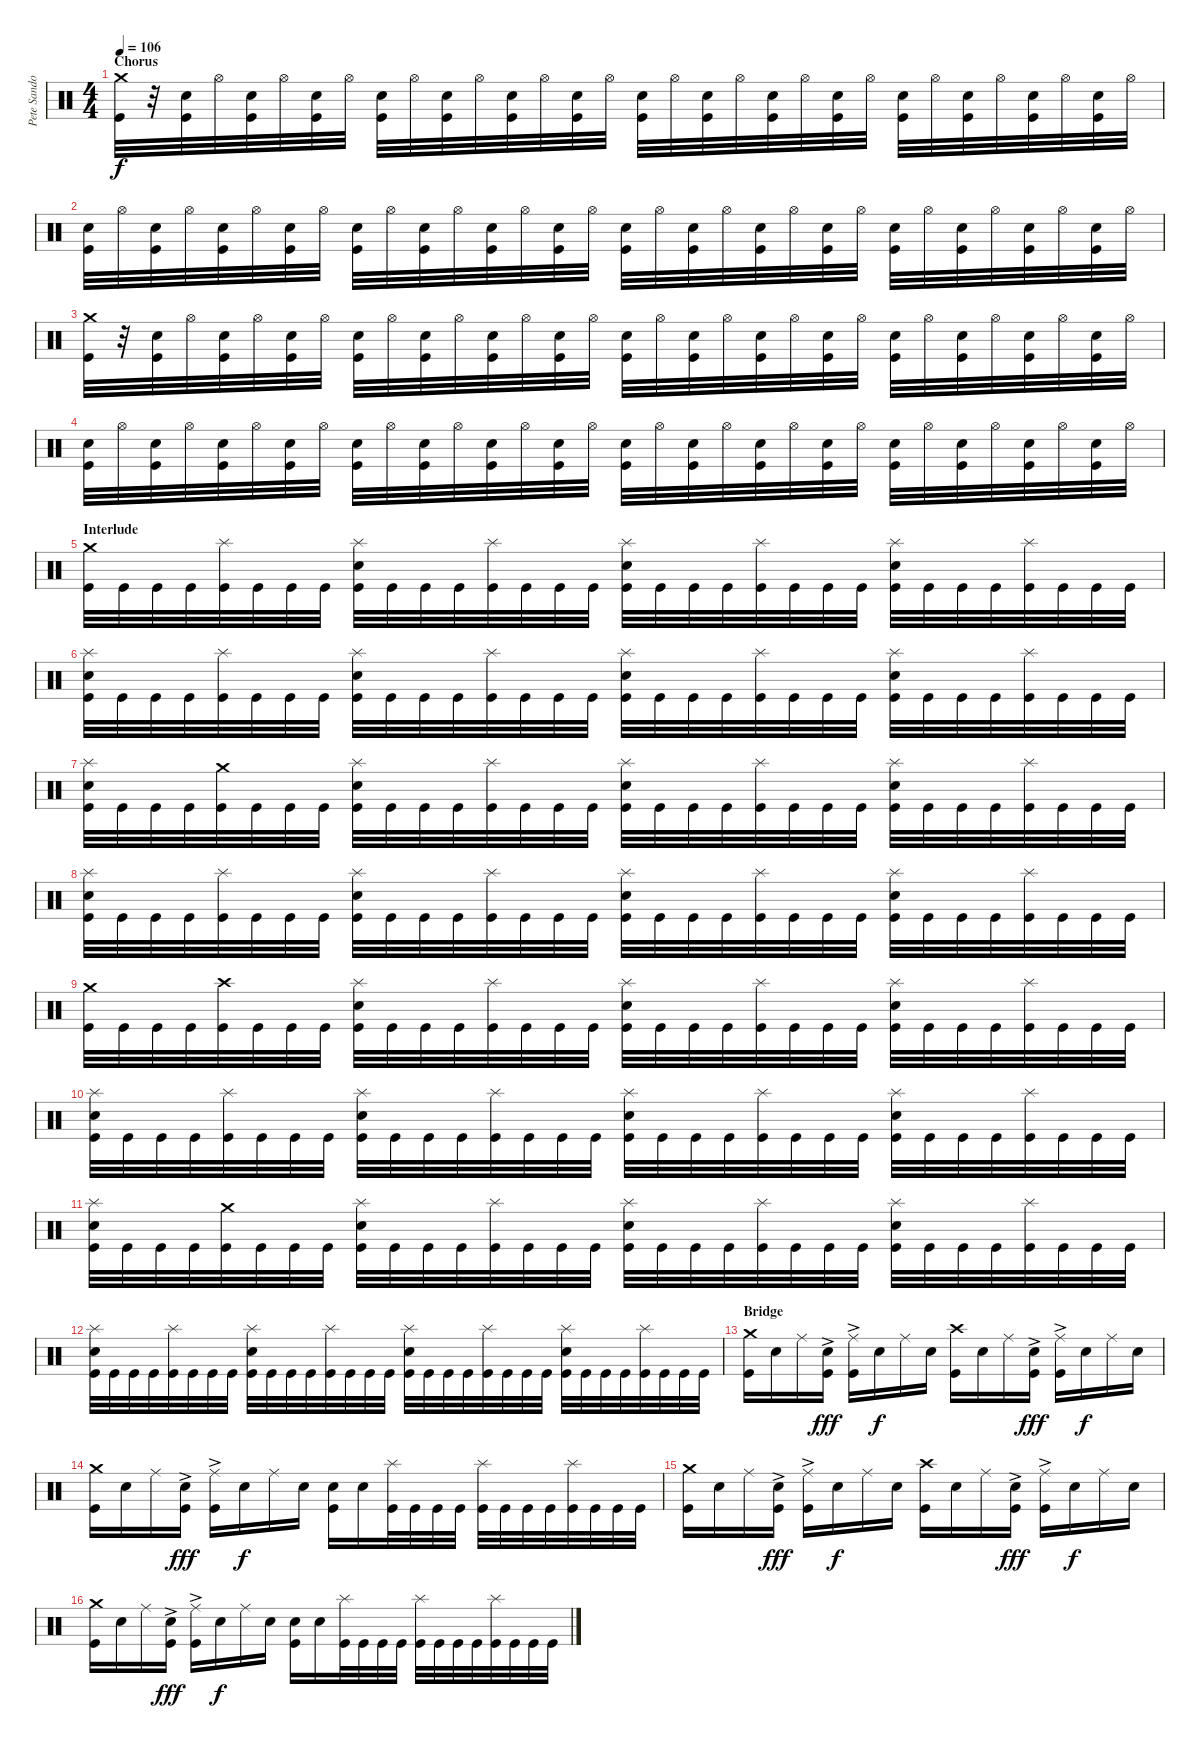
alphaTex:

\track ("Pete Sandoval" "Pete Sando") {instrument percussion}
\staff {score}
\articulation defaults
\ts (4 4)
\section ("" "Chorus")
\tempo 106
\clef neutral
\ks c
("Crash medium (hit)" "Kick (hit)").32{dy f} r.32 ("Electric Snare (hit)" "Kick (hit)").32 "Hi-Hat (open)".32 ("Electric Snare (hit)" "Kick (hit)").32 "Hi-Hat (open)".32 ("Electric Snare (hit)" "Kick (hit)").32 "Hi-Hat (open)".32 ("Electric Snare (hit)" "Kick (hit)").32 "Hi-Hat (open)".32 ("Electric Snare (hit)" "Kick (hit)").32 "Hi-Hat (open)".32 ("Electric Snare (hit)" "Kick (hit)").32 "Hi-Hat (open)".32 ("Electric Snare (hit)" "Kick (hit)").32 "Hi-Hat (open)".32 ("Electric Snare (hit)" "Kick (hit)").32 "Hi-Hat (open)".32 ("Electric Snare (hit)" "Kick (hit)").32 "Hi-Hat (open)".32 ("Electric Snare (hit)" "Kick (hit)").32 "Hi-Hat (open)".32 ("Electric Snare (hit)" "Kick (hit)").32 "Hi-Hat (open)".32 ("Electric Snare (hit)" "Kick (hit)").32 "Hi-Hat (open)".32 ("Electric Snare (hit)" "Kick (hit)").32 "Hi-Hat (open)".32 ("Electric Snare (hit)" "Kick (hit)").32 "Hi-Hat (open)".32 ("Electric Snare (hit)" "Kick (hit)").32 "Hi-Hat (open)".32 |
("Electric Snare (hit)" "Kick (hit)").32 "Hi-Hat (open)".32 ("Electric Snare (hit)" "Kick (hit)").32 "Hi-Hat (open)".32 ("Electric Snare (hit)" "Kick (hit)").32 "Hi-Hat (open)".32 ("Electric Snare (hit)" "Kick (hit)").32 "Hi-Hat (open)".32 ("Electric Snare (hit)" "Kick (hit)").32 "Hi-Hat (open)".32 ("Electric Snare (hit)" "Kick (hit)").32 "Hi-Hat (open)".32 ("Electric Snare (hit)" "Kick (hit)").32 "Hi-Hat (open)".32 ("Electric Snare (hit)" "Kick (hit)").32 "Hi-Hat (open)".32 ("Electric Snare (hit)" "Kick (hit)").32 "Hi-Hat (open)".32 ("Electric Snare (hit)" "Kick (hit)").32 "Hi-Hat (open)".32 ("Electric Snare (hit)" "Kick (hit)").32 "Hi-Hat (open)".32 ("Electric Snare (hit)" "Kick (hit)").32 "Hi-Hat (open)".32 ("Electric Snare (hit)" "Kick (hit)").32 "Hi-Hat (open)".32 ("Electric Snare (hit)" "Kick (hit)").32 "Hi-Hat (open)".32 ("Electric Snare (hit)" "Kick (hit)").32 "Hi-Hat (open)".32 ("Electric Snare (hit)" "Kick (hit)").32 "Hi-Hat (open)".32 |
("Crash medium (hit)" "Kick (hit)").32 r.32 ("Electric Snare (hit)" "Kick (hit)").32 "Hi-Hat (open)".32 ("Electric Snare (hit)" "Kick (hit)").32 "Hi-Hat (open)".32 ("Electric Snare (hit)" "Kick (hit)").32 "Hi-Hat (open)".32 ("Electric Snare (hit)" "Kick (hit)").32 "Hi-Hat (open)".32 ("Electric Snare (hit)" "Kick (hit)").32 "Hi-Hat (open)".32 ("Electric Snare (hit)" "Kick (hit)").32 "Hi-Hat (open)".32 ("Electric Snare (hit)" "Kick (hit)").32 "Hi-Hat (open)".32 ("Electric Snare (hit)" "Kick (hit)").32 "Hi-Hat (open)".32 ("Electric Snare (hit)" "Kick (hit)").32 "Hi-Hat (open)".32 ("Electric Snare (hit)" "Kick (hit)").32 "Hi-Hat (open)".32 ("Electric Snare (hit)" "Kick (hit)").32 "Hi-Hat (open)".32 ("Electric Snare (hit)" "Kick (hit)").32 "Hi-Hat (open)".32 ("Electric Snare (hit)" "Kick (hit)").32 "Hi-Hat (open)".32 ("Electric Snare (hit)" "Kick (hit)").32 "Hi-Hat (open)".32 ("Electric Snare (hit)" "Kick (hit)").32 "Hi-Hat (open)".32 |
("Electric Snare (hit)" "Kick (hit)").32 "Hi-Hat (open)".32 ("Electric Snare (hit)" "Kick (hit)").32 "Hi-Hat (open)".32 ("Electric Snare (hit)" "Kick (hit)").32 "Hi-Hat (open)".32 ("Electric Snare (hit)" "Kick (hit)").32 "Hi-Hat (open)".32 ("Electric Snare (hit)" "Kick (hit)").32 "Hi-Hat (open)".32 ("Electric Snare (hit)" "Kick (hit)").32 "Hi-Hat (open)".32 ("Electric Snare (hit)" "Kick (hit)").32 "Hi-Hat (open)".32 ("Electric Snare (hit)" "Kick (hit)").32 "Hi-Hat (open)".32 ("Electric Snare (hit)" "Kick (hit)").32 "Hi-Hat (open)".32 ("Electric Snare (hit)" "Kick (hit)").32 "Hi-Hat (open)".32 ("Electric Snare (hit)" "Kick (hit)").32 "Hi-Hat (open)".32 ("Electric Snare (hit)" "Kick (hit)").32 "Hi-Hat (open)".32 ("Electric Snare (hit)" "Kick (hit)").32 "Hi-Hat (open)".32 ("Electric Snare (hit)" "Kick (hit)").32 "Hi-Hat (open)".32 ("Electric Snare (hit)" "Kick (hit)").32 "Hi-Hat (open)".32 ("Electric Snare (hit)" "Kick (hit)").32 "Hi-Hat (open)".32 |
\section ("" "Interlude")
("Crash medium (hit)" "Kick (hit)").32 "Kick (hit)".32 "Kick (hit)".32 "Kick (hit)".32 ("Splash (hit)" "Kick (hit)").32 "Kick (hit)".32 "Kick (hit)".32 "Kick (hit)".32 ("Splash (hit)" "Electric Snare (hit)" "Kick (hit)").32 "Kick (hit)".32 "Kick (hit)".32 "Kick (hit)".32 ("Splash (hit)" "Kick (hit)").32 "Kick (hit)".32 "Kick (hit)".32 "Kick (hit)".32 ("Splash (hit)" "Electric Snare (hit)" "Kick (hit)").32 "Kick (hit)".32 "Kick (hit)".32 "Kick (hit)".32 ("Splash (hit)" "Kick (hit)").32 "Kick (hit)".32 "Kick (hit)".32 "Kick (hit)".32 ("Splash (hit)" "Electric Snare (hit)" "Kick (hit)").32 "Kick (hit)".32 "Kick (hit)".32 "Kick (hit)".32 ("Splash (hit)" "Kick (hit)").32 "Kick (hit)".32 "Kick (hit)".32 "Kick (hit)".32 |
("Splash (hit)" "Electric Snare (hit)" "Kick (hit)").32 "Kick (hit)".32 "Kick (hit)".32 "Kick (hit)".32 ("Splash (hit)" "Kick (hit)").32 "Kick (hit)".32 "Kick (hit)".32 "Kick (hit)".32 ("Splash (hit)" "Electric Snare (hit)" "Kick (hit)").32 "Kick (hit)".32 "Kick (hit)".32 "Kick (hit)".32 ("Splash (hit)" "Kick (hit)").32 "Kick (hit)".32 "Kick (hit)".32 "Kick (hit)".32 ("Splash (hit)" "Electric Snare (hit)" "Kick (hit)").32 "Kick (hit)".32 "Kick (hit)".32 "Kick (hit)".32 ("Splash (hit)" "Kick (hit)").32 "Kick (hit)".32 "Kick (hit)".32 "Kick (hit)".32 ("Splash (hit)" "Electric Snare (hit)" "Kick (hit)").32 "Kick (hit)".32 "Kick (hit)".32 "Kick (hit)".32 ("Splash (hit)" "Kick (hit)").32 "Kick (hit)".32 "Kick (hit)".32 "Kick (hit)".32 |
("Splash (hit)" "Electric Snare (hit)" "Kick (hit)").32 "Kick (hit)".32 "Kick (hit)".32 "Kick (hit)".32 ("Crash medium (hit)" "Kick (hit)").32 "Kick (hit)".32 "Kick (hit)".32 "Kick (hit)".32 ("Splash (hit)" "Electric Snare (hit)" "Kick (hit)").32 "Kick (hit)".32 "Kick (hit)".32 "Kick (hit)".32 ("Splash (hit)" "Kick (hit)").32 "Kick (hit)".32 "Kick (hit)".32 "Kick (hit)".32 ("Splash (hit)" "Electric Snare (hit)" "Kick (hit)").32 "Kick (hit)".32 "Kick (hit)".32 "Kick (hit)".32 ("Splash (hit)" "Kick (hit)").32 "Kick (hit)".32 "Kick (hit)".32 "Kick (hit)".32 ("Splash (hit)" "Electric Snare (hit)" "Kick (hit)").32 "Kick (hit)".32 "Kick (hit)".32 "Kick (hit)".32 ("Splash (hit)" "Kick (hit)").32 "Kick (hit)".32 "Kick (hit)".32 "Kick (hit)".32 |
("Splash (hit)" "Electric Snare (hit)" "Kick (hit)").32 "Kick (hit)".32 "Kick (hit)".32 "Kick (hit)".32 ("Splash (hit)" "Kick (hit)").32 "Kick (hit)".32 "Kick (hit)".32 "Kick (hit)".32 ("Splash (hit)" "Electric Snare (hit)" "Kick (hit)").32 "Kick (hit)".32 "Kick (hit)".32 "Kick (hit)".32 ("Splash (hit)" "Kick (hit)").32 "Kick (hit)".32 "Kick (hit)".32 "Kick (hit)".32 ("Splash (hit)" "Electric Snare (hit)" "Kick (hit)").32 "Kick (hit)".32 "Kick (hit)".32 "Kick (hit)".32 ("Splash (hit)" "Kick (hit)").32 "Kick (hit)".32 "Kick (hit)".32 "Kick (hit)".32 ("Splash (hit)" "Electric Snare (hit)" "Kick (hit)").32 "Kick (hit)".32 "Kick (hit)".32 "Kick (hit)".32 ("Splash (hit)" "Kick (hit)").32 "Kick (hit)".32 "Kick (hit)".32 "Kick (hit)".32 |
("Crash medium (hit)" "Kick (hit)").32 "Kick (hit)".32 "Kick (hit)".32 "Kick (hit)".32 ("Crash high (hit)" "Kick (hit)").32 "Kick (hit)".32 "Kick (hit)".32 "Kick (hit)".32 ("Splash (hit)" "Electric Snare (hit)" "Kick (hit)").32 "Kick (hit)".32 "Kick (hit)".32 "Kick (hit)".32 ("Splash (hit)" "Kick (hit)").32 "Kick (hit)".32 "Kick (hit)".32 "Kick (hit)".32 ("Splash (hit)" "Electric Snare (hit)" "Kick (hit)").32 "Kick (hit)".32 "Kick (hit)".32 "Kick (hit)".32 ("Splash (hit)" "Kick (hit)").32 "Kick (hit)".32 "Kick (hit)".32 "Kick (hit)".32 ("Splash (hit)" "Electric Snare (hit)" "Kick (hit)").32 "Kick (hit)".32 "Kick (hit)".32 "Kick (hit)".32 ("Splash (hit)" "Kick (hit)").32 "Kick (hit)".32 "Kick (hit)".32 "Kick (hit)".32 |
("Splash (hit)" "Electric Snare (hit)" "Kick (hit)").32 "Kick (hit)".32 "Kick (hit)".32 "Kick (hit)".32 ("Splash (hit)" "Kick (hit)").32 "Kick (hit)".32 "Kick (hit)".32 "Kick (hit)".32 ("Splash (hit)" "Electric Snare (hit)" "Kick (hit)").32 "Kick (hit)".32 "Kick (hit)".32 "Kick (hit)".32 ("Splash (hit)" "Kick (hit)").32 "Kick (hit)".32 "Kick (hit)".32 "Kick (hit)".32 ("Splash (hit)" "Electric Snare (hit)" "Kick (hit)").32 "Kick (hit)".32 "Kick (hit)".32 "Kick (hit)".32 ("Splash (hit)" "Kick (hit)").32 "Kick (hit)".32 "Kick (hit)".32 "Kick (hit)".32 ("Splash (hit)" "Electric Snare (hit)" "Kick (hit)").32 "Kick (hit)".32 "Kick (hit)".32 "Kick (hit)".32 ("Splash (hit)" "Kick (hit)").32 "Kick (hit)".32 "Kick (hit)".32 "Kick (hit)".32 |
("Splash (hit)" "Electric Snare (hit)" "Kick (hit)").32 "Kick (hit)".32 "Kick (hit)".32 "Kick (hit)".32 ("Crash medium (hit)" "Kick (hit)").32 "Kick (hit)".32 "Kick (hit)".32 "Kick (hit)".32 ("Splash (hit)" "Electric Snare (hit)" "Kick (hit)").32 "Kick (hit)".32 "Kick (hit)".32 "Kick (hit)".32 ("Splash (hit)" "Kick (hit)").32 "Kick (hit)".32 "Kick (hit)".32 "Kick (hit)".32 ("Splash (hit)" "Electric Snare (hit)" "Kick (hit)").32 "Kick (hit)".32 "Kick (hit)".32 "Kick (hit)".32 ("Splash (hit)" "Kick (hit)").32 "Kick (hit)".32 "Kick (hit)".32 "Kick (hit)".32 ("Splash (hit)" "Electric Snare (hit)" "Kick (hit)").32 "Kick (hit)".32 "Kick (hit)".32 "Kick (hit)".32 ("Splash (hit)" "Kick (hit)").32 "Kick (hit)".32 "Kick (hit)".32 "Kick (hit)".32 |
("Splash (hit)" "Electric Snare (hit)" "Kick (hit)").32 "Kick (hit)".32 "Kick (hit)".32 "Kick (hit)".32 ("Splash (hit)" "Kick (hit)").32 "Kick (hit)".32 "Kick (hit)".32 "Kick (hit)".32 ("Splash (hit)" "Electric Snare (hit)" "Kick (hit)").32 "Kick (hit)".32 "Kick (hit)".32 "Kick (hit)".32 ("Splash (hit)" "Kick (hit)").32 "Kick (hit)".32 "Kick (hit)".32 "Kick (hit)".32 ("Splash (hit)" "Electric Snare (hit)" "Kick (hit)").32 "Kick (hit)".32 "Kick (hit)".32 "Kick (hit)".32 ("Splash (hit)" "Kick (hit)").32 "Kick (hit)".32 "Kick (hit)".32 "Kick (hit)".32 ("Splash (hit)" "Electric Snare (hit)" "Kick (hit)").32 "Kick (hit)".32 "Kick (hit)".32 "Kick (hit)".32 ("Splash (hit)" "Kick (hit)").32 "Kick (hit)".32 "Kick (hit)".32 "Kick (hit)".32 |
\section ("" "Bridge")
("Crash medium (hit)" "Kick (hit)").16 "Electric Snare (hit)".16 "Ride (middle)".16 ("Electric Snare (hit)" "Kick (hit)"{ac}).16{dy fff} ("Ride (middle)" "Kick (hit)"{ac}).16 "Electric Snare (hit)".16{dy f} "Ride (middle)".16 "Electric Snare (hit)".16 ("Crash high (hit)" "Kick (hit)").16 "Electric Snare (hit)".16 "Ride (middle)".16 ("Electric Snare (hit)" "Kick (hit)"{ac}).16{dy fff} ("Ride (middle)" "Kick (hit)"{ac}).16 "Electric Snare (hit)".16{dy f} "Ride (middle)".16 "Electric Snare (hit)".16 |
("Crash medium (hit)" "Kick (hit)").16 "Electric Snare (hit)".16 "Ride (middle)".16 ("Electric Snare (hit)" "Kick (hit)"{ac}).16{dy fff} ("Ride (middle)" "Kick (hit)"{ac}).16 "Electric Snare (hit)".16{dy f} "Ride (middle)".16 "Electric Snare (hit)".16 ("Electric Snare (hit)" "Kick (hit)").16 "Electric Snare (hit)".16 ("Splash (hit)" "Kick (hit)").32 "Kick (hit)".32 "Kick (hit)".32 "Kick (hit)".32 ("Splash (hit)" "Kick (hit)").32 "Kick (hit)".32 "Kick (hit)".32 "Kick (hit)".32 ("Splash (hit)" "Kick (hit)").32 "Kick (hit)".32 "Kick (hit)".32 "Kick (hit)".32 |
("Crash medium (hit)" "Kick (hit)").16 "Electric Snare (hit)".16 "Ride (middle)".16 ("Electric Snare (hit)" "Kick (hit)"{ac}).16{dy fff} ("Ride (middle)" "Kick (hit)"{ac}).16 "Electric Snare (hit)".16{dy f} "Ride (middle)".16 "Electric Snare (hit)".16 ("Crash high (hit)" "Kick (hit)").16 "Electric Snare (hit)".16 "Ride (middle)".16 ("Electric Snare (hit)" "Kick (hit)"{ac}).16{dy fff} ("Ride (middle)" "Kick (hit)"{ac}).16 "Electric Snare (hit)".16{dy f} "Ride (middle)".16 "Electric Snare (hit)".16 |
("Crash medium (hit)" "Kick (hit)").16 "Electric Snare (hit)".16 "Ride (middle)".16 ("Electric Snare (hit)" "Kick (hit)"{ac}).16{dy fff} ("Ride (middle)" "Kick (hit)"{ac}).16 "Electric Snare (hit)".16{dy f} "Ride (middle)".16 "Electric Snare (hit)".16 ("Electric Snare (hit)" "Kick (hit)").16 "Electric Snare (hit)".16 ("Splash (hit)" "Kick (hit)").32 "Kick (hit)".32 "Kick (hit)".32 "Kick (hit)".32 ("Splash (hit)" "Kick (hit)").32 "Kick (hit)".32 "Kick (hit)".32 "Kick (hit)".32 ("Splash (hit)" "Kick (hit)").32 "Kick (hit)".32 "Kick (hit)".32 "Kick (hit)".32
